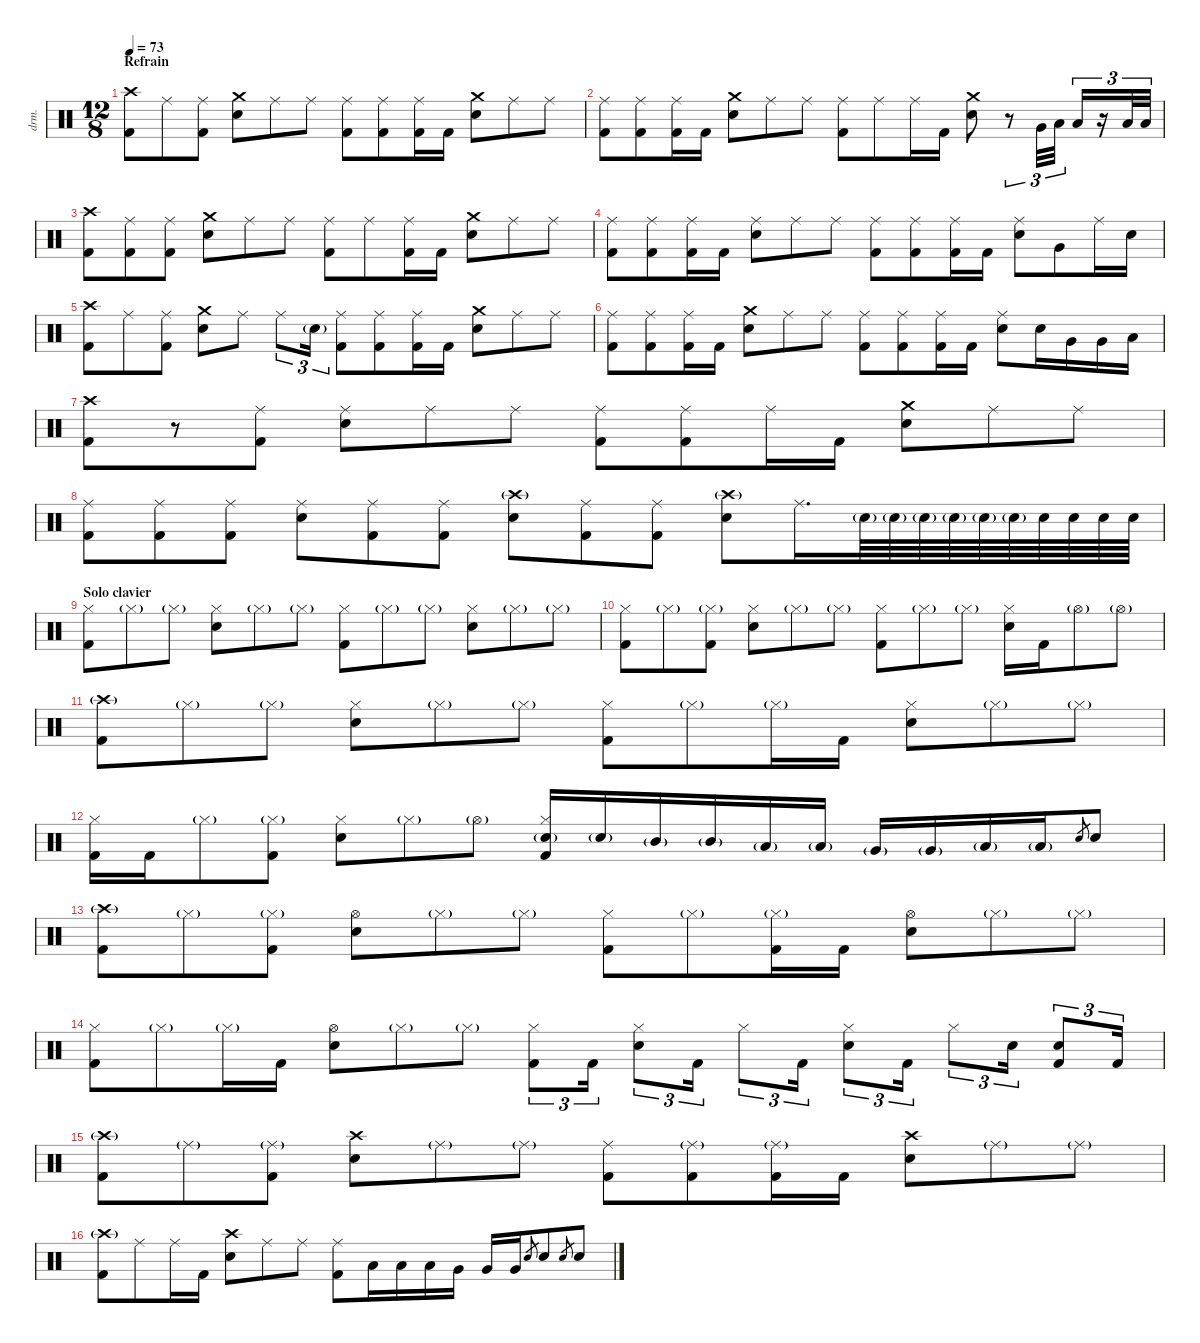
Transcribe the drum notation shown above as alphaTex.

\defaultSystemsLayout 4
\hideDynamics
\bracketExtendMode nobrackets
\otherSystemsTrackNameOrientation horizontal
\track ("Drums" "drm.") {instrument percussion}
\staff {score}
\articulation defaults
\ts (12 8)
\section ("" "Refrain")
\tempo 73
\clef neutral
\ks c
("Crash high (hit)" "Kick (hit) 2").8{dy f beam Down} "Ride (middle)".8{beam Down} ("Ride (middle)" "Kick (hit) 2").8{beam Down} ("Crash medium (hit)" "Snare (hit) 2").8{beam Down} "Ride (middle)".8{beam Down} "Ride (middle)".8{beam Down} ("Ride (middle)" "Kick (hit) 2").8{beam Down} ("Ride (middle)" "Kick (hit) 2").8{beam Down} ("Ride (middle)" "Kick (hit) 2").16{beam Down} "Kick (hit) 2".16{beam Down} ("Crash medium (hit)" "Snare (hit) 2").8{beam Down} "Ride (middle)".8{beam Down} "Ride (middle)".8{beam Down} |
("Ride (middle)" "Kick (hit) 2").8{beam Down} ("Ride (middle)" "Kick (hit) 2").8{beam Down} ("Ride (middle)" "Kick (hit) 2").16{beam Down} "Kick (hit) 2".16{beam Down} ("Crash medium (hit)" "Snare (hit) 2").8{beam Down} "Ride (middle)".8{beam Down} "Ride (middle)".8{beam Down} ("Ride (middle)" "Kick (hit) 2").8{beam Down} "Ride (middle)".8{beam Down} "Ride (middle)".16{beam Down} "Kick (hit) 2".16{beam Down} ("Crash medium (hit)" "Snare (hit) 2").8{beam Down} r.8{tu (3 2) beam Down} "Very Low Tom (hit)".32{tu (3 2) beam Up} "Low Floor Tom (hit)".32{tu (3 2) beam Up} "Low Floor Tom (hit)".16{tu (3 2) beam Up} r.16{tu (3 2) beam Up} "Low Floor Tom (hit)".32{tu (3 2) beam Up} "Low Floor Tom (hit)".32{tu (3 2) beam Up} |
("Crash high (hit)" "Kick (hit) 2").8{beam Down} ("Ride (middle)" "Kick (hit) 2").8{beam Down} ("Ride (middle)" "Kick (hit) 2").8{beam Down} ("Crash medium (hit)" "Snare (hit) 2").8{beam Down} "Ride (middle)".8{beam Down} "Ride (middle)".8{beam Down} ("Ride (middle)" "Kick (hit) 2").8{beam Down} "Ride (middle)".8{beam Down} ("Ride (middle)" "Kick (hit) 2").16{beam Down} "Kick (hit) 2".16{beam Down} ("Crash medium (hit)" "Snare (hit) 2").8{beam Down} "Ride (middle)".8{beam Down} "Ride (middle)".8{beam Down} |
("Ride (middle)" "Kick (hit) 2").8{beam Down} ("Ride (middle)" "Kick (hit) 2").8{beam Down} ("Ride (middle)" "Kick (hit) 2").16{beam Down} "Kick (hit) 2".16{beam Down} ("Snare (hit) 2" "Ride (middle)").8{beam Down} "Ride (middle)".8{beam Down} "Ride (middle)".8{beam Down} ("Ride (middle)" "Kick (hit) 2").8{beam Down} ("Ride (middle)" "Kick (hit) 2").8{beam Down} ("Ride (middle)" "Kick (hit) 2").16{beam Down} "Kick (hit) 2".16{beam Down} ("Snare (hit) 2" "Ride (middle)").8{beam Down} "Very Low Tom (hit)".8{beam Down} "Ride (middle)".16{beam Down} "Snare (hit) 2".16{beam Down} |
("Crash high (hit)" "Kick (hit) 2").8{beam Down} "Ride (middle)".8{beam Down} ("Ride (middle)" "Kick (hit) 2").8{beam Down} ("Crash medium (hit)" "Snare (hit) 2").8{beam Down} "Ride (middle)".8{beam Down} "Ride (middle)".8{tu (3 2) beam Down} "Snare (hit) 2"{g}.16{tu (3 2) beam Down} ("Ride (middle)" "Kick (hit) 2").8{beam Down} ("Ride (middle)" "Kick (hit) 2").8{beam Down} ("Ride (middle)" "Kick (hit) 2").16{beam Down} "Kick (hit) 2".16{beam Down} ("Crash medium (hit)" "Snare (hit) 2").8{beam Down} "Ride (middle)".8{beam Down} "Ride (middle)".8{beam Down} |
("Ride (middle)" "Kick (hit) 2").8{beam Down} ("Ride (middle)" "Kick (hit) 2").8{beam Down} ("Ride (middle)" "Kick (hit) 2").16{beam Down} "Kick (hit) 2".16{beam Down} ("Crash medium (hit)" "Snare (hit) 2").8{beam Down} "Ride (middle)".8{beam Down} "Ride (middle)".8{beam Down} ("Ride (middle)" "Kick (hit) 2").8{beam Down} ("Ride (middle)" "Kick (hit) 2").8{beam Down} ("Ride (middle)" "Kick (hit) 2").16{beam Down} "Kick (hit) 2".16{beam Down} ("Snare (hit) 2" "Ride (middle)").8{beam Down} "Snare (hit) 2".16{beam Down} "Very Low Tom (hit)".16{beam Down} "Very Low Tom (hit)".16{beam Down} "Low Floor Tom (hit)".16{beam Down} |
("Crash high (hit)" "Kick (hit) 2").8{beam Down} r.8{beam Down} ("Ride (middle)" "Kick (hit) 2").8{beam Down} ("Snare (hit) 2" "Ride (middle)").8{beam Down} "Ride (middle)".8{beam Down} "Ride (middle)".8{beam Down} ("Ride (middle)" "Kick (hit) 2").8{beam Down} ("Ride (middle)" "Kick (hit) 2").8{beam Down} "Ride (middle)".16{beam Down} "Kick (hit) 2".16{beam Down} ("Crash medium (hit)" "Snare (hit) 2").8{beam Down} "Ride (middle)".8{beam Down} "Ride (middle)".8{beam Down} |
("Ride (middle)" "Kick (hit) 2").8{beam Down} ("Ride (middle)" "Kick (hit) 2").8{beam Down} ("Ride (middle)" "Kick (hit) 2").8{beam Down} ("Snare (hit) 2" "Ride (middle)").8{beam Down} ("Ride (middle)" "Kick (hit) 2").8{beam Down} ("Ride (middle)" "Kick (hit) 2").8{beam Down} ("Snare (hit) 2" "Crash high (hit)"{g}).8{beam Down} ("Ride (middle)" "Kick (hit) 2").8{beam Down} ("Ride (middle)" "Kick (hit) 2").8{beam Down} ("Snare (hit) 2" "Crash high (hit)"{g}).8{beam Down} "Ride (middle)".16{d beam Down} "Snare (hit) 2"{g}.64{dy mp beam Down} "Snare (hit) 2"{g}.64{beam Down} "Snare (hit) 2"{g}.64{dy mf beam Down} "Snare (hit) 2"{g}.64{beam Down} "Snare (hit) 2"{g}.64{dy f beam Down} "Snare (hit) 2"{g}.64{beam Down} "Snare (hit) 2".64{dy mf beam Down} "Snare (hit) 2".64{beam Down} "Snare (hit) 2".64{dy f beam Down} "Snare (hit) 2".64{beam Down} |
\section ("" "Solo clavier")
("Hi-Hat (closed)" "Kick (hit) 2").8{beam Down} "Hi-Hat (closed)"{g}.8{beam Down} "Hi-Hat (closed)"{g}.8{beam Down} ("Hi-Hat (closed)" "Snare (hit) 2").8{beam Down} "Hi-Hat (closed)"{g}.8{beam Down} "Hi-Hat (closed)"{g}.8{beam Down} ("Hi-Hat (closed)" "Kick (hit) 2").8{beam Down} "Hi-Hat (closed)"{g}.8{beam Down} "Hi-Hat (closed)"{g}.8{beam Down} ("Hi-Hat (closed)" "Snare (hit) 2").8{beam Down} "Hi-Hat (closed)"{g}.8{beam Down} "Hi-Hat (closed)"{g}.8{beam Down} |
("Hi-Hat (closed)" "Kick (hit) 2").8{beam Down} "Hi-Hat (closed)"{g}.8{beam Down} ("Hi-Hat (closed)"{g} "Kick (hit) 2").8{beam Down} ("Hi-Hat (closed)" "Snare (hit) 2").8{beam Down} "Hi-Hat (closed)"{g}.8{beam Down} "Hi-Hat (closed)"{g}.8{beam Down} ("Hi-Hat (closed)" "Kick (hit) 2").8{beam Down} "Hi-Hat (closed)"{g}.8{beam Down} "Hi-Hat (closed)"{g}.8{beam Down} ("Hi-Hat (closed)" "Snare (hit) 2").16{beam Down} "Kick (hit) 2".16{beam Down} "Hi-Hat (open)"{g}.8{beam Down} "Hi-Hat (open)"{g}.8{beam Down} |
("Crash high (hit)"{g} "Kick (hit) 2").8{beam Down} "Hi-Hat (closed)"{g}.8{beam Down} "Hi-Hat (closed)"{g}.8{beam Down} ("Hi-Hat (closed)" "Snare (hit) 2").8{beam Down} "Hi-Hat (closed)"{g}.8{beam Down} "Hi-Hat (closed)"{g}.8{beam Down} ("Hi-Hat (closed)" "Kick (hit) 2").8{beam Down} "Hi-Hat (closed)"{g}.8{beam Down} "Hi-Hat (closed)"{g}.16{beam Down} "Kick (hit) 2".16{beam Down} ("Hi-Hat (closed)" "Snare (hit) 2").8{beam Down} "Hi-Hat (closed)"{g}.8{beam Down} "Hi-Hat (closed)"{g}.8{beam Down} |
("Hi-Hat (closed)" "Kick (hit) 2").16{beam Down} "Kick (hit) 2".16{beam Down} "Hi-Hat (closed)"{g}.8{beam Down} ("Hi-Hat (closed)"{g} "Kick (hit) 2").8{beam Down} ("Hi-Hat (closed)" "Snare (hit) 2").8{beam Down} "Hi-Hat (closed)"{g}.8{beam Down} "Hi-Hat (open)"{g}.8{beam Down} ("Hi-Hat (closed)" "Snare (hit) 2"{g} "Kick (hit) 2").16{beam Up} "Snare (hit) 2"{g}.16{beam Up} "Mid Tom (hit)"{g}.16{beam Up} "Mid Tom (hit)"{g}.16{beam Up} "Low Tom (hit)"{g}.16{beam Up} "Low Tom (hit)"{g}.16{beam Up} "Very Low Tom (hit)"{g}.16{beam Up} "Very Low Tom (hit)"{g}.16{beam Up} "Low Floor Tom (hit)"{g}.16{beam Up} "Low Floor Tom (hit)"{g}.16{beam Up} "Electric Snare (hit)".8{gr dy mf beam Up} "Snare (hit) 2".8{dy f beam Up} |
("Crash high (hit)"{g} "Kick (hit) 2").8{beam Down} "Hi-Hat (closed)"{g}.8{beam Down} ("Hi-Hat (closed)"{g} "Kick (hit) 2").8{beam Down} ("Hi-Hat (open)" "Snare (hit) 2").8{beam Down} "Hi-Hat (closed)"{g}.8{beam Down} "Hi-Hat (closed)"{g}.8{beam Down} ("Hi-Hat (closed)" "Kick (hit) 2").8{beam Down} "Hi-Hat (closed)"{g}.8{beam Down} ("Hi-Hat (closed)"{g} "Kick (hit) 2").16{beam Down} "Kick (hit) 2".16{beam Down} ("Hi-Hat (open)" "Snare (hit) 2").8{beam Down} "Hi-Hat (closed)"{g}.8{beam Down} "Hi-Hat (closed)"{g}.8{beam Down} |
("Hi-Hat (closed)" "Kick (hit) 2").8{beam Down} "Hi-Hat (closed)"{g}.8{beam Down} "Hi-Hat (closed)"{g}.16{beam Down} "Kick (hit) 2".16{beam Down} ("Hi-Hat (open)" "Snare (hit) 2").8{beam Down} "Hi-Hat (closed)"{g}.8{beam Down} "Hi-Hat (closed)"{g}.8{beam Down} ("Hi-Hat (closed)" "Kick (hit) 2").8{tu (3 2) beam Down} "Kick (hit) 2".16{tu (3 2) beam Down} ("Hi-Hat (closed)" "Snare (hit) 2").8{tu (3 2) beam Down} "Kick (hit) 2".16{tu (3 2) beam Down} "Hi-Hat (closed)".8{tu (3 2) beam Down} "Kick (hit) 2".16{tu (3 2) beam Down} ("Hi-Hat (closed)" "Snare (hit) 2").8{tu (3 2) beam Down} "Kick (hit) 2".16{tu (3 2) beam Down} "Hi-Hat (closed)".8{tu (3 2) beam Down} "Snare (hit) 2".16{tu (3 2) beam Down} ("Snare (hit) 2" "Kick (hit) 2").8{tu (3 2) beam Up} "Kick (hit) 2".16{tu (3 2) beam Up} |
("Crash high (hit)"{g} "Kick (hit) 2").8{beam Down} "Ride (middle)"{g}.8{beam Down} ("Ride (middle)"{g} "Kick (hit) 2").8{beam Down} ("Snare (hit) 2" "Crash high (hit)").8{beam Down} "Ride (middle)"{g}.8{beam Down} "Ride (middle)"{g}.8{beam Down} ("Ride (middle)" "Kick (hit) 2").8{beam Down} ("Ride (middle)"{g} "Kick (hit) 2").8{beam Down} ("Ride (middle)"{g} "Kick (hit) 2").16{beam Down} "Kick (hit) 2".16{beam Down} ("Snare (hit) 2" "Crash high (hit)").8{beam Down} "Ride (middle)"{g}.8{beam Down} "Ride (middle)"{g}.8{beam Down} |
("Crash high (hit)"{g} "Kick (hit) 2").8{beam Down} "Ride (middle)".8{beam Down} "Ride (middle)".16{beam Down} "Kick (hit) 2".16{beam Down} ("Snare (hit) 2" "Crash high (hit)").8{beam Down} "Ride (middle)".8{beam Down} "Ride (middle)".8{beam Down} ("Ride (middle)" "Kick (hit) 2").8{beam Down} "Low Tom (hit)".16{beam Down} "Low Tom (hit)".16{beam Down} "Low Tom (hit)".16{beam Down} "Very Low Tom (hit)".16{beam Down} "Very Low Tom (hit)".16{beam Up} "Very Low Tom (hit)".16{beam Up} "Snare (hit) 2".8{gr dy mf beam Up} "Snare (hit) 2".8{dy f beam Up} "Snare (hit) 2".8{gr dy mf beam Up} "Snare (hit) 2".8{dy f beam Up}
